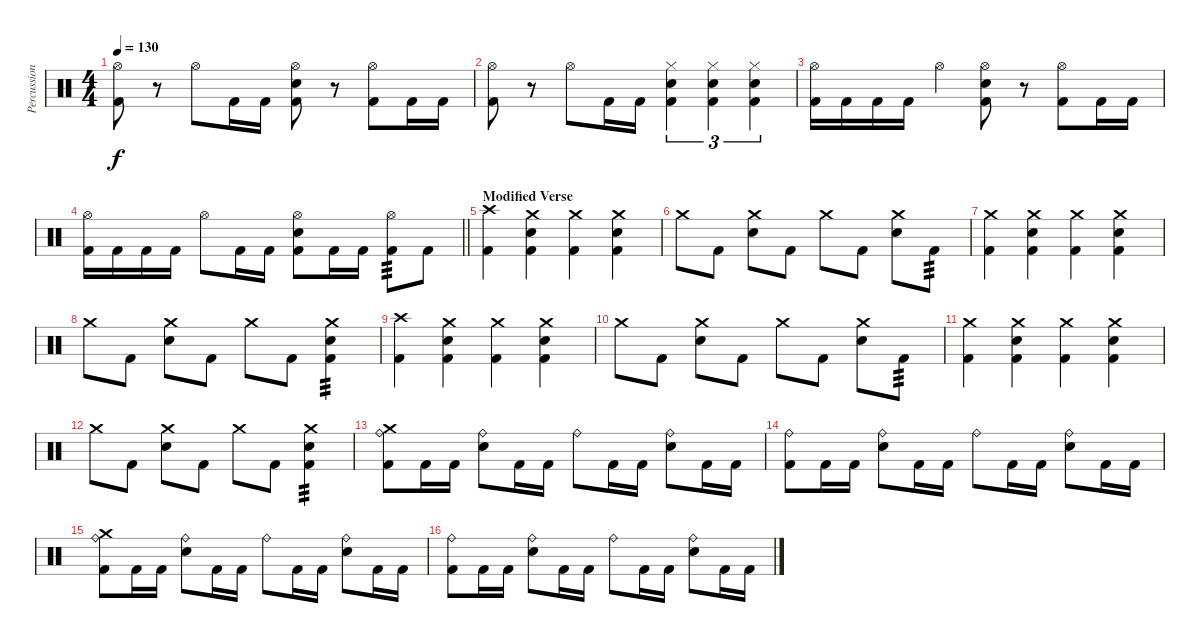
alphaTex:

\track ("Percussion" "Percussion") {instrument percussion}
\staff {score}
\articulation defaults
\ts (4 4)
\tempo 130
\clef neutral
\ks c
("Hi-Hat (open)" "Kick (hit) 2").8{dy f} r.8 "Hi-Hat (open)".8 "Kick (hit) 2".16 "Kick (hit) 2".16 ("Hi-Hat (open)" "Electric Snare (hit)" "Kick (hit) 2").8 r.8 ("Hi-Hat (open)" "Kick (hit) 2").8 "Kick (hit) 2".16 "Kick (hit) 2".16 |
("Hi-Hat (open)" "Kick (hit) 2").8 r.8 "Hi-Hat (open)".8 "Kick (hit) 2".16 "Kick (hit) 2".16 ("Hi-Hat (closed)" "Electric Snare (hit)" "Kick (hit) 2").4{tu (3 2)} ("Hi-Hat (closed)" "Electric Snare (hit)" "Kick (hit) 2").4{tu (3 2)} ("Hi-Hat (closed)" "Electric Snare (hit)" "Kick (hit) 2").4{tu (3 2)} |
("Hi-Hat (open)" "Kick (hit) 2").16 "Kick (hit) 2".16 "Kick (hit) 2".16 "Kick (hit) 2".16 "Hi-Hat (open)".4 ("Hi-Hat (open)" "Electric Snare (hit)" "Kick (hit) 2").8 r.8 ("Hi-Hat (open)" "Kick (hit) 2").8 "Kick (hit) 2".16 "Kick (hit) 2".16 |
\barLineRight lightlight
("Hi-Hat (open)" "Kick (hit) 2").16 "Kick (hit) 2".16 "Kick (hit) 2".16 "Kick (hit) 2".16 "Hi-Hat (open)".8 "Kick (hit) 2".16 "Kick (hit) 2".16 ("Hi-Hat (open)" "Electric Snare (hit)" "Kick (hit) 2").8 "Kick (hit) 2".16 "Kick (hit) 2".16 ("Hi-Hat (open)" "Kick (hit) 2").8{tp 3} "Kick (hit) 2".8 |
\section ("" "Modified Verse")
("Crash high (hit)" "Kick (hit) 2").4 ("Crash medium (hit)" "Electric Snare (hit)" "Kick (hit) 2").4 ("Crash medium (hit)" "Kick (hit) 2").4 ("Crash medium (hit)" "Electric Snare (hit)" "Kick (hit) 2").4 |
"Crash medium (hit)".8 "Kick (hit) 2".8 ("Crash medium (hit)" "Electric Snare (hit)").8 "Kick (hit) 2".8 "Crash medium (hit)".8 "Kick (hit) 2".8 ("Crash medium (hit)" "Electric Snare (hit)").8 "Kick (hit) 2".8{tp 3} |
("Crash medium (hit)" "Kick (hit) 2").4 ("Crash medium (hit)" "Electric Snare (hit)" "Kick (hit) 2").4 ("Crash medium (hit)" "Kick (hit) 2").4 ("Crash medium (hit)" "Electric Snare (hit)" "Kick (hit) 2").4 |
"Crash medium (hit)".8 "Kick (hit) 2".8 ("Crash medium (hit)" "Electric Snare (hit)").8 "Kick (hit) 2".8 "Crash medium (hit)".8 "Kick (hit) 2".8 ("Crash medium (hit)" "Electric Snare (hit)" "Kick (hit) 2").4{tp 3} |
("Crash high (hit)" "Kick (hit) 2").4 ("Crash medium (hit)" "Electric Snare (hit)" "Kick (hit) 2").4 ("Crash medium (hit)" "Kick (hit) 2").4 ("Crash medium (hit)" "Electric Snare (hit)" "Kick (hit) 2").4 |
"Crash medium (hit)".8 "Kick (hit) 2".8 ("Crash medium (hit)" "Electric Snare (hit)").8 "Kick (hit) 2".8 "Crash medium (hit)".8 "Kick (hit) 2".8 ("Crash medium (hit)" "Electric Snare (hit)").8 "Kick (hit) 2".8{tp 3} |
("Crash medium (hit)" "Kick (hit) 2").4 ("Crash medium (hit)" "Electric Snare (hit)" "Kick (hit) 2").4 ("Crash medium (hit)" "Kick (hit) 2").4 ("Crash medium (hit)" "Electric Snare (hit)" "Kick (hit) 2").4 |
"Crash medium (hit)".8 "Kick (hit) 2".8 ("Crash medium (hit)" "Electric Snare (hit)").8 "Kick (hit) 2".8 "Crash medium (hit)".8 "Kick (hit) 2".8 ("Crash medium (hit)" "Electric Snare (hit)" "Kick (hit) 2").4{tp 3} |
("Crash medium (hit)" "Ride (bell)" "Kick (hit) 2").8 "Kick (hit) 2".16 "Kick (hit) 2".16 ("Ride (bell)" "Electric Snare (hit)").8 "Kick (hit) 2".16 "Kick (hit) 2".16 "Ride (bell)".8 "Kick (hit) 2".16 "Kick (hit) 2".16 ("Ride (bell)" "Electric Snare (hit)").8 "Kick (hit) 2".16 "Kick (hit) 2".16 |
("Ride (bell)" "Kick (hit) 2").8 "Kick (hit) 2".16 "Kick (hit) 2".16 ("Ride (bell)" "Electric Snare (hit)").8 "Kick (hit) 2".16 "Kick (hit) 2".16 "Ride (bell)".8 "Kick (hit) 2".16 "Kick (hit) 2".16 ("Ride (bell)" "Electric Snare (hit)").8 "Kick (hit) 2".16 "Kick (hit) 2".16 |
("Crash medium (hit)" "Ride (bell)" "Kick (hit) 2").8 "Kick (hit) 2".16 "Kick (hit) 2".16 ("Ride (bell)" "Electric Snare (hit)").8 "Kick (hit) 2".16 "Kick (hit) 2".16 "Ride (bell)".8 "Kick (hit) 2".16 "Kick (hit) 2".16 ("Ride (bell)" "Electric Snare (hit)").8 "Kick (hit) 2".16 "Kick (hit) 2".16 |
("Ride (bell)" "Kick (hit) 2").8 "Kick (hit) 2".16 "Kick (hit) 2".16 ("Ride (bell)" "Electric Snare (hit)").8 "Kick (hit) 2".16 "Kick (hit) 2".16 "Ride (bell)".8 "Kick (hit) 2".16 "Kick (hit) 2".16 ("Ride (bell)" "Electric Snare (hit)").8 "Kick (hit) 2".16 "Kick (hit) 2".16
